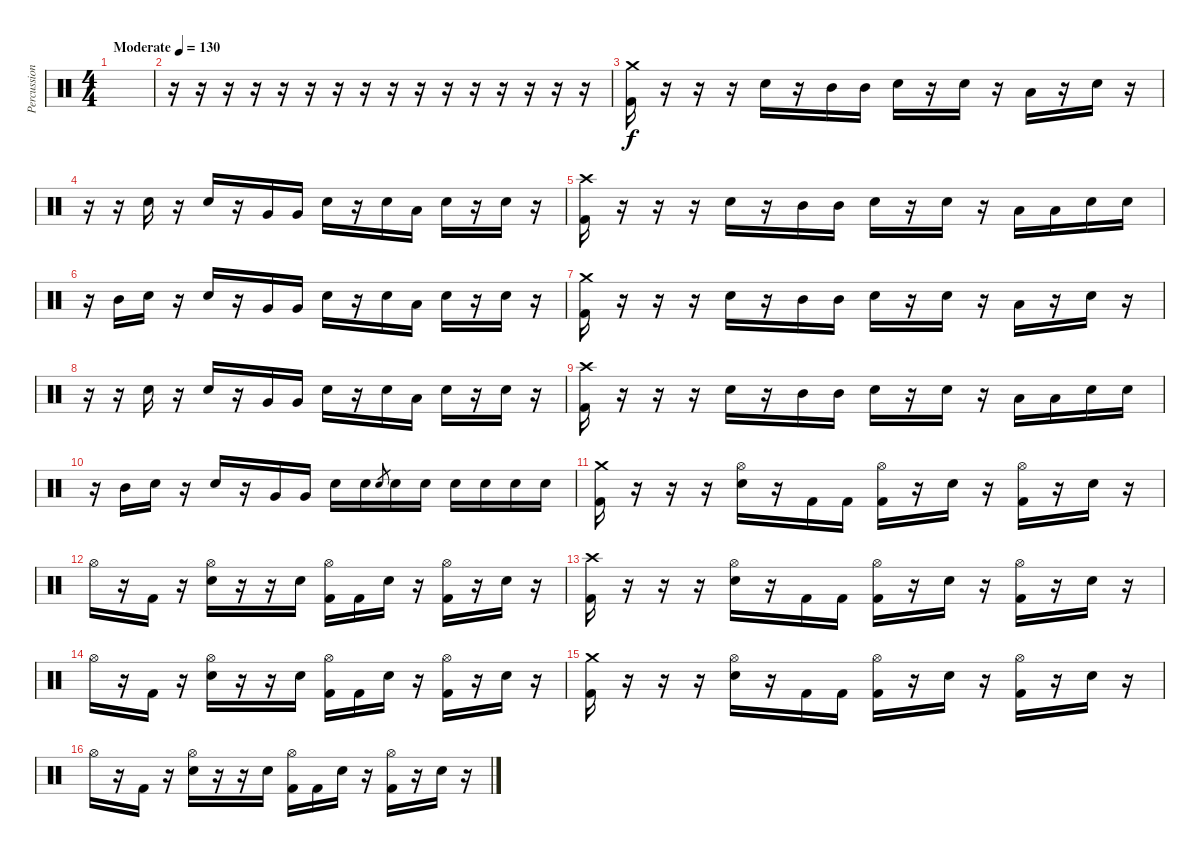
\track ("Percussion" "Percussion") {instrument percussion bank 152}
\staff {score}
\articulation defaults
\ts (4 4)
\tempo (130 "Moderate")
\clef neutral
\ks c
|
r.16 r.16 r.16 r.16 r.16 r.16 r.16 r.16 r.16 r.16 r.16 r.16 r.16 r.16 r.16 r.16 |
("Crash medium (hit)" "Kick (hit) 2").16 r.16 r.16 r.16 "Electric Snare (hit)".16 r.16 "Mid Tom (hit)".16 "Mid Tom (hit)".16 "Electric Snare (hit)".16 r.16 "Electric Snare (hit)".16 r.16 "Low Tom (hit)".16 r.16 "Electric Snare (hit)".16 r.16 |
r.16 r.16 "Electric Snare (hit)".16 r.16 "Electric Snare (hit)".16 r.16 "Very Low Tom (hit)".16 "Very Low Tom (hit)".16 "Electric Snare (hit)".16 r.16 "Electric Snare (hit)".16 "Low Floor Tom (hit)".16 "Electric Snare (hit)".16 r.16 "Electric Snare (hit)".16 r.16 |
("Crash high (hit)" "Kick (hit) 2").16 r.16 r.16 r.16 "Electric Snare (hit)".16 r.16 "Mid Tom (hit)".16 "Mid Tom (hit)".16 "Electric Snare (hit)".16 r.16 "Electric Snare (hit)".16 r.16 "Low Tom (hit)".16 "Low Tom (hit)".16 "Electric Snare (hit)".16 "Electric Snare (hit)".16 |
r.16 "Mid Tom (hit)".16 "Electric Snare (hit)".16 r.16 "Electric Snare (hit)".16 r.16 "Very Low Tom (hit)".16 "Very Low Tom (hit)".16 "Electric Snare (hit)".16 r.16 "Electric Snare (hit)".16 "Low Floor Tom (hit)".16 "Electric Snare (hit)".16 r.16 "Electric Snare (hit)".16 r.16 |
("Crash medium (hit)" "Kick (hit) 2").16 r.16 r.16 r.16 "Electric Snare (hit)".16 r.16 "Mid Tom (hit)".16 "Mid Tom (hit)".16 "Electric Snare (hit)".16 r.16 "Electric Snare (hit)".16 r.16 "Low Tom (hit)".16 r.16 "Electric Snare (hit)".16 r.16 |
r.16 r.16 "Electric Snare (hit)".16 r.16 "Electric Snare (hit)".16 r.16 "Very Low Tom (hit)".16 "Very Low Tom (hit)".16 "Electric Snare (hit)".16 r.16 "Electric Snare (hit)".16 "Low Floor Tom (hit)".16 "Electric Snare (hit)".16 r.16 "Electric Snare (hit)".16 r.16 |
("Crash high (hit)" "Kick (hit) 2").16 r.16 r.16 r.16 "Electric Snare (hit)".16 r.16 "Mid Tom (hit)".16 "Mid Tom (hit)".16 "Electric Snare (hit)".16 r.16 "Electric Snare (hit)".16 r.16 "Low Tom (hit)".16 "Low Tom (hit)".16 "Electric Snare (hit)".16 "Electric Snare (hit)".16 |
r.16 "Mid Tom (hit)".16 "Electric Snare (hit)".16 r.16 "Electric Snare (hit)".16 r.16 "Very Low Tom (hit)".16 "Very Low Tom (hit)".16 "Electric Snare (hit)".16 "Electric Snare (hit)".16 "Electric Snare (hit)".8{gr} "Electric Snare (hit)".16 "Electric Snare (hit)".16 "Electric Snare (hit)".16 "Electric Snare (hit)".16 "Electric Snare (hit)".16 "Electric Snare (hit)".16 |
("Crash medium (hit)" "Kick (hit) 2").16 r.16 r.16 r.16 ("Hi-Hat (open)" "Electric Snare (hit)").16 r.16 "Kick (hit) 2".16 "Kick (hit) 2".16 ("Hi-Hat (open)" "Kick (hit) 2").16 r.16 "Electric Snare (hit)".16 r.16 ("Hi-Hat (open)" "Kick (hit) 2").16 r.16 "Electric Snare (hit)".16 r.16 |
"Hi-Hat (open)".16 r.16 "Kick (hit) 2".16 r.16 ("Hi-Hat (open)" "Electric Snare (hit)").16 r.16 r.16 "Electric Snare (hit)".16 ("Hi-Hat (open)" "Kick (hit) 2").16 "Kick (hit) 2".16 "Electric Snare (hit)".16 r.16 ("Hi-Hat (open)" "Kick (hit) 2").16 r.16 "Electric Snare (hit)".16 r.16 |
("Crash high (hit)" "Kick (hit) 2").16 r.16 r.16 r.16 ("Hi-Hat (open)" "Electric Snare (hit)").16 r.16 "Kick (hit) 2".16 "Kick (hit) 2".16 ("Hi-Hat (open)" "Kick (hit) 2").16 r.16 "Electric Snare (hit)".16 r.16 ("Hi-Hat (open)" "Kick (hit) 2").16 r.16 "Electric Snare (hit)".16 r.16 |
"Hi-Hat (open)".16 r.16 "Kick (hit) 2".16 r.16 ("Hi-Hat (open)" "Electric Snare (hit)").16 r.16 r.16 "Electric Snare (hit)".16 ("Hi-Hat (open)" "Kick (hit) 2").16 "Kick (hit) 2".16 "Electric Snare (hit)".16 r.16 ("Hi-Hat (open)" "Kick (hit) 2").16 r.16 "Electric Snare (hit)".16 r.16 |
("Crash medium (hit)" "Kick (hit) 2").16 r.16 r.16 r.16 ("Hi-Hat (open)" "Electric Snare (hit)").16 r.16 "Kick (hit) 2".16 "Kick (hit) 2".16 ("Hi-Hat (open)" "Kick (hit) 2").16 r.16 "Electric Snare (hit)".16 r.16 ("Hi-Hat (open)" "Kick (hit) 2").16 r.16 "Electric Snare (hit)".16 r.16 |
"Hi-Hat (open)".16 r.16 "Kick (hit) 2".16 r.16 ("Hi-Hat (open)" "Electric Snare (hit)").16 r.16 r.16 "Electric Snare (hit)".16 ("Hi-Hat (open)" "Kick (hit) 2").16 "Kick (hit) 2".16 "Electric Snare (hit)".16 r.16 ("Hi-Hat (open)" "Kick (hit) 2").16 r.16 "Electric Snare (hit)".16 r.16
